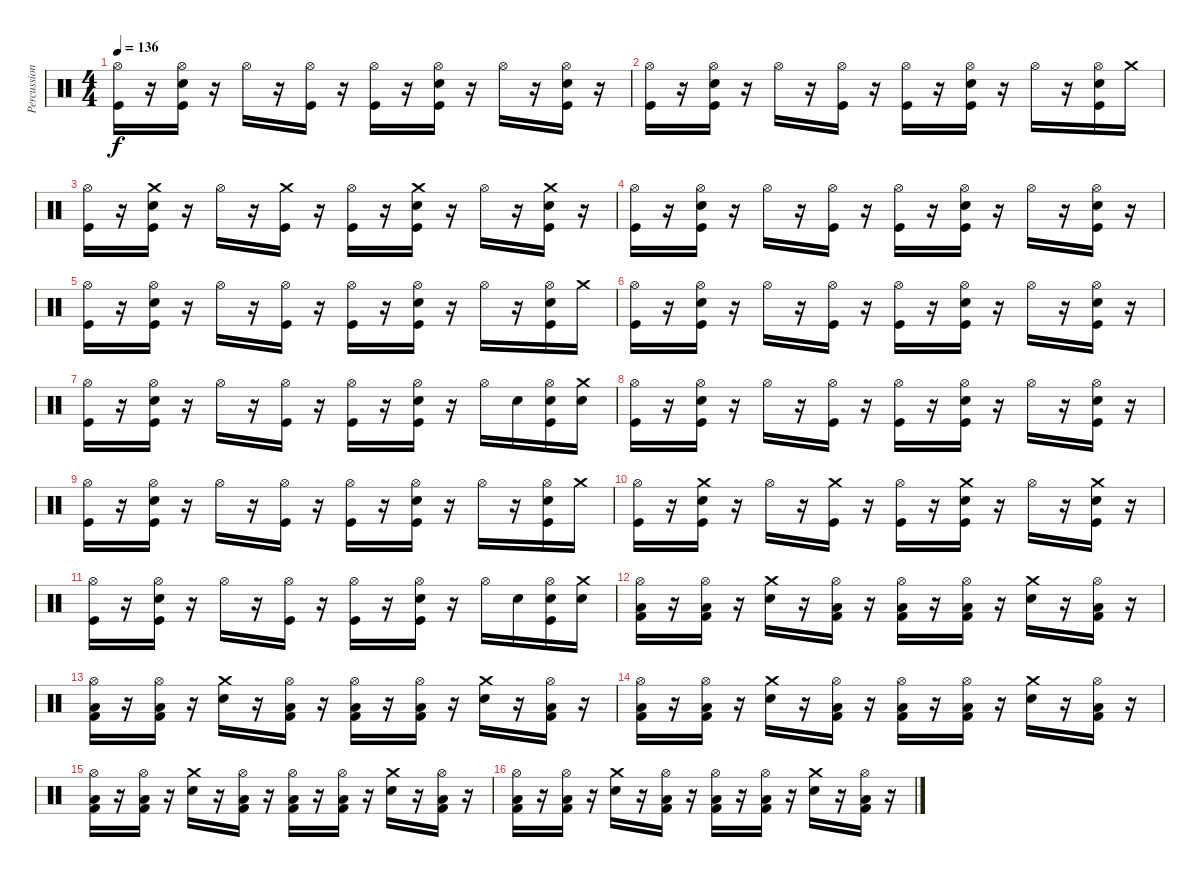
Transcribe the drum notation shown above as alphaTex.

\track ("Percussion" "Percussion") {instrument percussion}
\staff {score}
\articulation defaults
\ts (4 4)
\tempo 136
\clef neutral
\ks c
("Kick (hit)" "Hi-Hat (open)").16{dy f} r.16 ("Kick (hit)" "Snare (hit) 2" "Hi-Hat (open)").16 r.16 "Hi-Hat (open)".16 r.16 ("Kick (hit)" "Hi-Hat (open)").16 r.16 ("Kick (hit)" "Hi-Hat (open)").16 r.16 ("Kick (hit)" "Snare (hit) 2" "Hi-Hat (open)").16 r.16 "Hi-Hat (open)".16 r.16 ("Kick (hit)" "Snare (hit) 2" "Hi-Hat (open)").16 r.16 |
("Kick (hit)" "Hi-Hat (open)").16 r.16 ("Kick (hit)" "Snare (hit) 2" "Hi-Hat (open)").16 r.16 "Hi-Hat (open)".16 r.16 ("Kick (hit)" "Hi-Hat (open)").16 r.16 ("Kick (hit)" "Hi-Hat (open)").16 r.16 ("Kick (hit)" "Snare (hit) 2" "Hi-Hat (open)").16 r.16 "Hi-Hat (open)".16 r.16 ("Kick (hit)" "Snare (hit) 2" "Hi-Hat (open)").16 "Crash medium (hit)".16 |
("Kick (hit)" "Hi-Hat (open)").16 r.16 ("Kick (hit)" "Snare (hit) 2" "Crash medium (hit)").16 r.16 "Hi-Hat (open)".16 r.16 ("Kick (hit)" "Crash medium (hit)").16 r.16 ("Kick (hit)" "Hi-Hat (open)").16 r.16 ("Kick (hit)" "Snare (hit) 2" "Crash medium (hit)").16 r.16 "Hi-Hat (open)".16 r.16 ("Kick (hit)" "Snare (hit) 2" "Crash medium (hit)").16 r.16 |
("Kick (hit)" "Hi-Hat (open)").16 r.16 ("Kick (hit)" "Snare (hit) 2" "Hi-Hat (open)").16 r.16 "Hi-Hat (open)".16 r.16 ("Kick (hit)" "Hi-Hat (open)").16 r.16 ("Kick (hit)" "Hi-Hat (open)").16 r.16 ("Kick (hit)" "Snare (hit) 2" "Hi-Hat (open)").16 r.16 "Hi-Hat (open)".16 r.16 ("Kick (hit)" "Snare (hit) 2" "Hi-Hat (open)").16 r.16 |
("Kick (hit)" "Hi-Hat (open)").16 r.16 ("Kick (hit)" "Snare (hit) 2" "Hi-Hat (open)").16 r.16 "Hi-Hat (open)".16 r.16 ("Kick (hit)" "Hi-Hat (open)").16 r.16 ("Kick (hit)" "Hi-Hat (open)").16 r.16 ("Kick (hit)" "Snare (hit) 2" "Hi-Hat (open)").16 r.16 "Hi-Hat (open)".16 r.16 ("Kick (hit)" "Snare (hit) 2" "Hi-Hat (open)").16 "Crash medium (hit)".16 |
("Kick (hit)" "Hi-Hat (open)").16 r.16 ("Kick (hit)" "Snare (hit) 2" "Hi-Hat (open)").16 r.16 "Hi-Hat (open)".16 r.16 ("Kick (hit)" "Hi-Hat (open)").16 r.16 ("Kick (hit)" "Hi-Hat (open)").16 r.16 ("Kick (hit)" "Snare (hit) 2" "Hi-Hat (open)").16 r.16 "Hi-Hat (open)".16 r.16 ("Kick (hit)" "Snare (hit) 2" "Hi-Hat (open)").16 r.16 |
("Kick (hit)" "Hi-Hat (open)").16 r.16 ("Kick (hit)" "Snare (hit) 2" "Hi-Hat (open)").16 r.16 "Hi-Hat (open)".16 r.16 ("Kick (hit)" "Hi-Hat (open)").16 r.16 ("Kick (hit)" "Hi-Hat (open)").16 r.16 ("Kick (hit)" "Snare (hit) 2" "Hi-Hat (open)").16 r.16 "Hi-Hat (open)".16 "Electric Snare (hit)".16 ("Kick (hit)" "Snare (hit) 2" "Hi-Hat (open)").16 ("Crash medium (hit)" "Electric Snare (hit)").16 |
("Kick (hit)" "Hi-Hat (open)").16 r.16 ("Kick (hit)" "Snare (hit) 2" "Hi-Hat (open)").16 r.16 "Hi-Hat (open)".16 r.16 ("Kick (hit)" "Hi-Hat (open)").16 r.16 ("Kick (hit)" "Hi-Hat (open)").16 r.16 ("Kick (hit)" "Snare (hit) 2" "Hi-Hat (open)").16 r.16 "Hi-Hat (open)".16 r.16 ("Kick (hit)" "Snare (hit) 2" "Hi-Hat (open)").16 r.16 |
("Kick (hit)" "Hi-Hat (open)").16 r.16 ("Kick (hit)" "Snare (hit) 2" "Hi-Hat (open)").16 r.16 "Hi-Hat (open)".16 r.16 ("Kick (hit)" "Hi-Hat (open)").16 r.16 ("Kick (hit)" "Hi-Hat (open)").16 r.16 ("Kick (hit)" "Snare (hit) 2" "Hi-Hat (open)").16 r.16 "Hi-Hat (open)".16 r.16 ("Kick (hit)" "Snare (hit) 2" "Hi-Hat (open)").16 "Crash medium (hit)".16 |
("Kick (hit)" "Hi-Hat (open)").16 r.16 ("Kick (hit)" "Snare (hit) 2" "Crash medium (hit)").16 r.16 "Hi-Hat (open)".16 r.16 ("Kick (hit)" "Crash medium (hit)").16 r.16 ("Kick (hit)" "Hi-Hat (open)").16 r.16 ("Kick (hit)" "Snare (hit) 2" "Crash medium (hit)").16 r.16 "Hi-Hat (open)".16 r.16 ("Kick (hit)" "Snare (hit) 2" "Crash medium (hit)").16 r.16 |
("Kick (hit)" "Hi-Hat (open)").16 r.16 ("Kick (hit)" "Snare (hit) 2" "Hi-Hat (open)").16 r.16 "Hi-Hat (open)".16 r.16 ("Kick (hit)" "Hi-Hat (open)").16 r.16 ("Kick (hit)" "Hi-Hat (open)").16 r.16 ("Kick (hit)" "Snare (hit) 2" "Hi-Hat (open)").16 r.16 "Hi-Hat (open)".16 "Electric Snare (hit)".16 ("Kick (hit)" "Snare (hit) 2" "Hi-Hat (open)").16 ("Crash medium (hit)" "Electric Snare (hit)").16 |
("Kick (hit) 2" "Low Floor Tom (hit)" "Hi-Hat (open)").16 r.16 ("Kick (hit) 2" "Low Floor Tom (hit)" "Hi-Hat (open)").16 r.16 ("Snare (hit) 2" "Crash medium (hit)").16 r.16 ("Kick (hit) 2" "Low Floor Tom (hit)" "Hi-Hat (open)").16 r.16 ("Kick (hit) 2" "Low Floor Tom (hit)" "Hi-Hat (open)").16 r.16 ("Kick (hit) 2" "Low Floor Tom (hit)" "Hi-Hat (open)").16 r.16 ("Snare (hit) 2" "Crash medium (hit)").16 r.16 ("Kick (hit) 2" "Low Floor Tom (hit)" "Hi-Hat (open)").16 r.16 |
("Kick (hit) 2" "Low Floor Tom (hit)" "Hi-Hat (open)").16 r.16 ("Kick (hit) 2" "Low Floor Tom (hit)" "Hi-Hat (open)").16 r.16 ("Snare (hit) 2" "Crash medium (hit)").16 r.16 ("Kick (hit) 2" "Low Floor Tom (hit)" "Hi-Hat (open)").16 r.16 ("Kick (hit) 2" "Low Floor Tom (hit)" "Hi-Hat (open)").16 r.16 ("Kick (hit) 2" "Low Floor Tom (hit)" "Hi-Hat (open)").16 r.16 ("Snare (hit) 2" "Crash medium (hit)").16 r.16 ("Kick (hit) 2" "Low Floor Tom (hit)" "Hi-Hat (open)").16 r.16 |
("Kick (hit) 2" "Low Floor Tom (hit)" "Hi-Hat (open)").16 r.16 ("Kick (hit) 2" "Low Floor Tom (hit)" "Hi-Hat (open)").16 r.16 ("Snare (hit) 2" "Crash medium (hit)").16 r.16 ("Kick (hit) 2" "Low Floor Tom (hit)" "Hi-Hat (open)").16 r.16 ("Kick (hit) 2" "Low Floor Tom (hit)" "Hi-Hat (open)").16 r.16 ("Kick (hit) 2" "Low Floor Tom (hit)" "Hi-Hat (open)").16 r.16 ("Snare (hit) 2" "Crash medium (hit)").16 r.16 ("Kick (hit) 2" "Low Floor Tom (hit)" "Hi-Hat (open)").16 r.16 |
("Kick (hit) 2" "Low Floor Tom (hit)" "Hi-Hat (open)").16 r.16 ("Kick (hit) 2" "Low Floor Tom (hit)" "Hi-Hat (open)").16 r.16 ("Snare (hit) 2" "Crash medium (hit)").16 r.16 ("Kick (hit) 2" "Low Floor Tom (hit)" "Hi-Hat (open)").16 r.16 ("Kick (hit) 2" "Low Floor Tom (hit)" "Hi-Hat (open)").16 r.16 ("Kick (hit) 2" "Low Floor Tom (hit)" "Hi-Hat (open)").16 r.16 ("Snare (hit) 2" "Crash medium (hit)").16 r.16 ("Kick (hit) 2" "Low Floor Tom (hit)" "Hi-Hat (open)").16 r.16 |
("Kick (hit) 2" "Low Floor Tom (hit)" "Hi-Hat (open)").16 r.16 ("Kick (hit) 2" "Low Floor Tom (hit)" "Hi-Hat (open)").16 r.16 ("Snare (hit) 2" "Crash medium (hit)").16 r.16 ("Kick (hit) 2" "Low Floor Tom (hit)" "Hi-Hat (open)").16 r.16 ("Kick (hit) 2" "Low Floor Tom (hit)" "Hi-Hat (open)").16 r.16 ("Kick (hit) 2" "Low Floor Tom (hit)" "Hi-Hat (open)").16 r.16 ("Snare (hit) 2" "Crash medium (hit)").16 r.16 ("Kick (hit) 2" "Low Floor Tom (hit)" "Hi-Hat (open)").16 r.16
